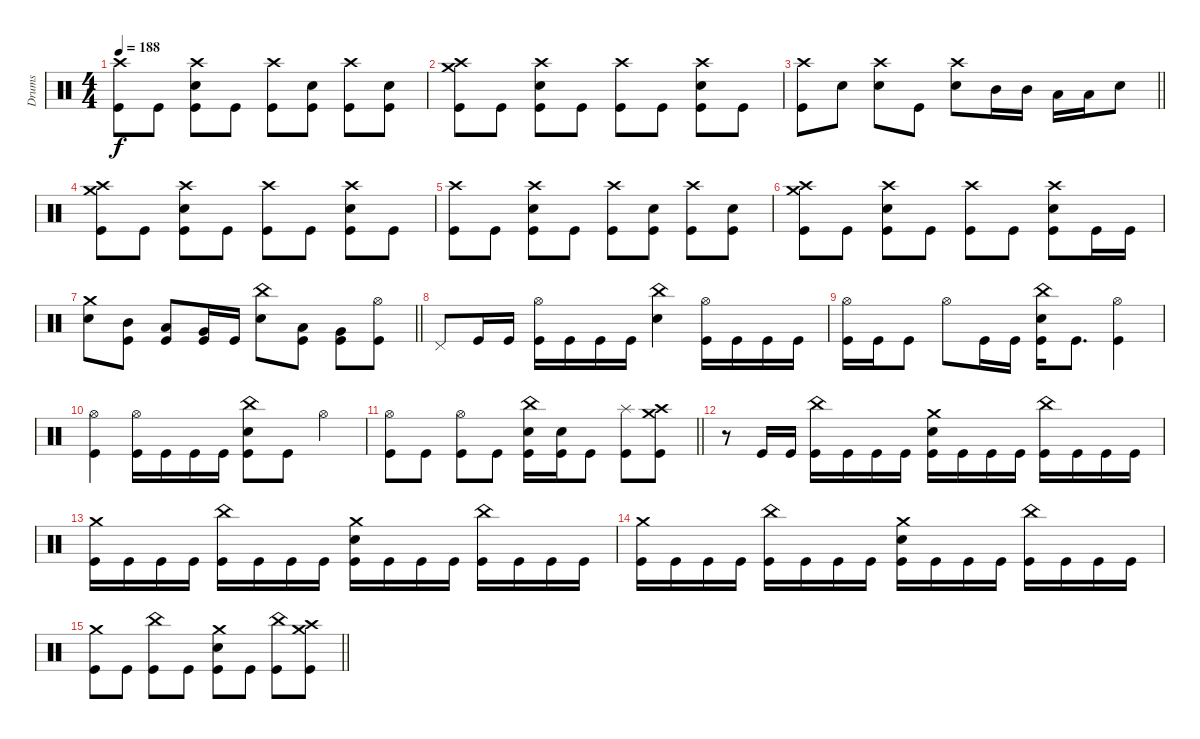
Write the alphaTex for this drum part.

\track ("Drums" "Drums") {instrument percussion}
\staff
\articulation defaults
\ts (4 4)
\tempo 188
\clef neutral
\ks c
("Crash high (hit)" "Kick (hit)").8{dy f} "Kick (hit)".8 ("Crash high (hit)" "Electric Snare (hit)" "Kick (hit)").8 "Kick (hit)".8 ("Crash high (hit)" "Kick (hit)").8 ("Electric Snare (hit)" "Kick (hit)").8 ("Crash high (hit)" "Kick (hit)").8 ("Electric Snare (hit)" "Kick (hit)").8 |
("Crash high (hit)" "Crash medium (hit)" "Kick (hit)").8 "Kick (hit)".8 ("Crash high (hit)" "Electric Snare (hit)" "Kick (hit)").8 "Kick (hit)".8 ("Crash high (hit)" "Kick (hit)").8 "Kick (hit)".8 ("Crash high (hit)" "Electric Snare (hit)" "Kick (hit)").8 "Kick (hit)".8 |
\barLineRight lightlight
("Crash high (hit)" "Kick (hit)").8 "Electric Snare (hit)".8 ("Crash high (hit)" "Electric Snare (hit)").8 "Kick (hit)".8 ("Crash high (hit)" "Electric Snare (hit)").8 "Mid Tom (hit)".16 "Mid Tom (hit)".16 "Low Tom (hit)".16 "Low Tom (hit)".16 "Electric Snare (hit)".8 |
("Crash high (hit)" "Crash medium (hit)" "Kick (hit)").8 "Kick (hit)".8 ("Crash high (hit)" "Electric Snare (hit)" "Kick (hit)").8 "Kick (hit)".8 ("Crash high (hit)" "Kick (hit)").8 "Kick (hit)".8 ("Crash high (hit)" "Electric Snare (hit)" "Kick (hit)").8 "Kick (hit)".8 |
("Crash high (hit)" "Kick (hit)").8 "Kick (hit)".8 ("Crash high (hit)" "Electric Snare (hit)" "Kick (hit)").8 "Kick (hit)".8 ("Crash high (hit)" "Kick (hit)").8 ("Electric Snare (hit)" "Kick (hit)").8 ("Crash high (hit)" "Kick (hit)").8 ("Electric Snare (hit)" "Kick (hit)").8 |
("Crash high (hit)" "Crash medium (hit)" "Kick (hit)").8 "Kick (hit)".8 ("Crash high (hit)" "Electric Snare (hit)" "Kick (hit)").8 "Kick (hit)".8 ("Crash high (hit)" "Kick (hit)").8 "Kick (hit)".8 ("Crash high (hit)" "Electric Snare (hit)" "Kick (hit)").8 "Kick (hit)".16 "Kick (hit)".16 |
\barLineRight lightlight
("Crash medium (hit)" "Electric Snare (hit)").8 ("Mid Tom (hit)" "Kick (hit)").8 ("Low Tom (hit)" "Kick (hit)").8 ("Very Low Tom (hit)" "Kick (hit)").16 "Kick (hit)".16 ("China (hit)" "Electric Snare (hit)").8 ("Low Tom (hit)" "Kick (hit)").8 ("Very Low Tom (hit)" "Kick (hit)").8 ("Hi-Hat (open)" "Kick (hit)").8 |
\section ("" "")
"Pedal Hi-Hat (hit)".8 "Kick (hit)".16 "Kick (hit)".16 ("Hi-Hat (open)" "Kick (hit)").16 "Kick (hit)".16 "Kick (hit)".16 "Kick (hit)".16 ("China (hit)" "Electric Snare (hit)").4 ("Hi-Hat (open)" "Kick (hit)").16 "Kick (hit)".16 "Kick (hit)".16 "Kick (hit)".16 |
("Hi-Hat (open)" "Kick (hit)").16 "Kick (hit)".16 "Kick (hit)".8 "Hi-Hat (open)".8 "Kick (hit)".16 "Kick (hit)".16 ("China (hit)" "Electric Snare (hit)" "Kick (hit)").16 "Kick (hit)".8{d} ("Hi-Hat (open)" "Kick (hit)").4 |
("Hi-Hat (open)" "Kick (hit)").4 ("Hi-Hat (open)" "Kick (hit)").16 "Kick (hit)".16 "Kick (hit)".16 "Kick (hit)".16 ("China (hit)" "Electric Snare (hit)" "Kick (hit)").8 "Kick (hit)".8 "Hi-Hat (open)".4 |
\barLineRight lightlight
("Hi-Hat (open)" "Kick (hit)").8 "Kick (hit)".8 ("Hi-Hat (open)" "Kick (hit)").8 "Kick (hit)".8 ("China (hit)" "Electric Snare (hit)" "Kick (hit)").16 ("Electric Snare (hit)" "Kick (hit)").16 "Kick (hit)".8 ("Splash (hit)" "Kick (hit)").8 ("Crash high (hit)" "Crash medium (hit)" "Kick (hit)").8 |
r.8 "Kick (hit)".16 "Kick (hit)".16 ("China (hit)" "Kick (hit)").16 "Kick (hit)".16 "Kick (hit)".16 "Kick (hit)".16 ("Crash medium (hit)" "Electric Snare (hit)" "Kick (hit)").16 "Kick (hit)".16 "Kick (hit)".16 "Kick (hit)".16 ("China (hit)" "Kick (hit)").16 "Kick (hit)".16 "Kick (hit)".16 "Kick (hit)".16 |
("Crash medium (hit)" "Kick (hit)").16 "Kick (hit)".16 "Kick (hit)".16 "Kick (hit)".16 ("China (hit)" "Kick (hit)").16 "Kick (hit)".16 "Kick (hit)".16 "Kick (hit)".16 ("Crash medium (hit)" "Electric Snare (hit)" "Kick (hit)").16 "Kick (hit)".16 "Kick (hit)".16 "Kick (hit)".16 ("China (hit)" "Kick (hit)").16 "Kick (hit)".16 "Kick (hit)".16 "Kick (hit)".16 |
("Crash medium (hit)" "Kick (hit)").16 "Kick (hit)".16 "Kick (hit)".16 "Kick (hit)".16 ("China (hit)" "Kick (hit)").16 "Kick (hit)".16 "Kick (hit)".16 "Kick (hit)".16 ("Crash medium (hit)" "Electric Snare (hit)" "Kick (hit)").16 "Kick (hit)".16 "Kick (hit)".16 "Kick (hit)".16 ("China (hit)" "Kick (hit)").16 "Kick (hit)".16 "Kick (hit)".16 "Kick (hit)".16 |
\barLineRight lightlight
("Crash medium (hit)" "Kick (hit)").8 "Kick (hit)".8 ("China (hit)" "Kick (hit)").8 "Kick (hit)".8 ("Crash medium (hit)" "Electric Snare (hit)" "Kick (hit)").8 "Kick (hit)".8 ("China (hit)" "Kick (hit)").8 ("Crash high (hit)" "Crash medium (hit)" "Kick (hit)").8
